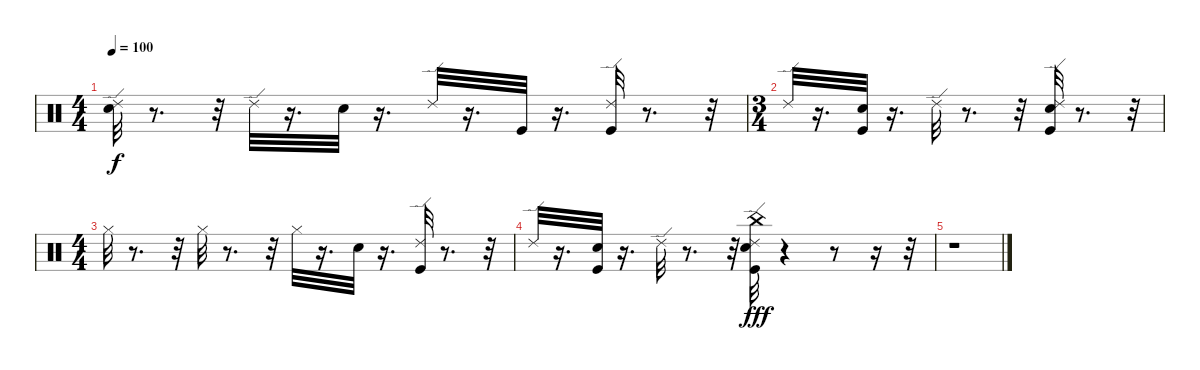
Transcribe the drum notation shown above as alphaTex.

\track "" {instrument percussion}
\staff {score}
\articulation defaults
\ts (4 4)
\tempo 100
\clef neutral
\ks c
("Snare (hit) 2" "Ride (edge) 2").32{dy f} r.8{d} r.32 "Ride (edge) 2".32 r.16{d} "Snare (hit) 2".32 r.16{d} "Ride (edge) 2".32 r.16{d} "Kick (hit)".32 r.16{d} ("Kick (hit)" "Ride (edge) 2").32 r.8{d} r.32 |
\ts (3 4)
"Ride (edge) 2".32 r.16{d} ("Snare (hit) 2" "Kick (hit)").32 r.16{d} "Ride (edge) 2".32 r.8{d} r.32 ("Snare (hit) 2" "Kick (hit)" "Ride (edge) 2").32 r.8{d} r.32 |
\ts (4 4)
"Hi-Hat (closed)".32 r.8{d} r.32 "Hi-Hat (closed)".32 r.8{d} r.32 "Hi-Hat (closed)".32 r.16{d} "Snare (hit) 2".32 r.16{d} ("Kick (hit)" "Ride (edge) 2").32 r.8{d} r.32 |
"Ride (edge) 2".32 r.16{d} ("Snare (hit) 2" "Kick (hit)").32 r.16{d} "Ride (edge) 2".32 r.8{d} r.32 ("China (hit)" "Snare (hit) 2" "Kick (hit)" "Ride (edge) 2").32{dy fff} r.4 r.8 r.16 r.32 |
r.1
